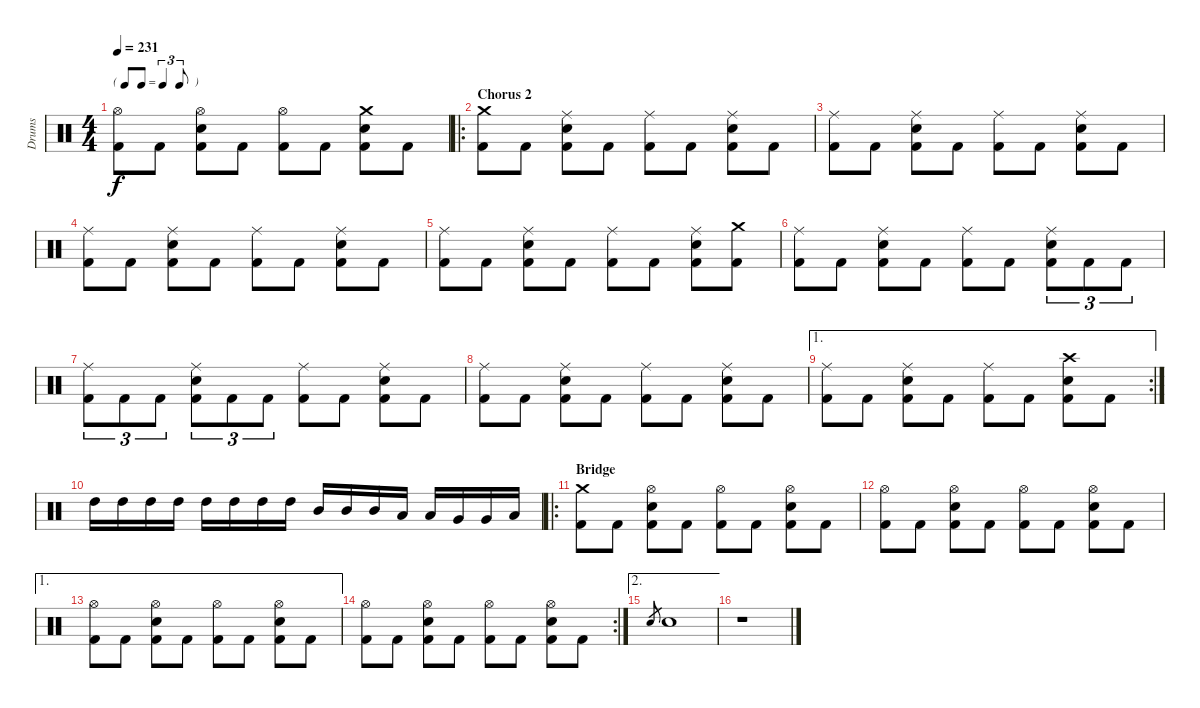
\track ("Drums" "Drums") {instrument percussion}
\staff {score}
\articulation defaults
\ts (4 4)
\tf triplet8th
\tempo 231
\clef neutral
\ks c
("Hi-Hat (open)" "Kick (hit) 2").8{dy f} "Kick (hit) 2".8 ("Hi-Hat (open)" "Electric Snare (hit)" "Kick (hit) 2").8 "Kick (hit) 2".8 ("Hi-Hat (open)" "Kick (hit) 2").8 "Kick (hit) 2".8 ("Crash medium (hit)" "Electric Snare (hit)" "Kick (hit) 2").8 "Kick (hit) 2".8 |
\ro
\section ("" "Chorus 2")
("Crash medium (hit)" "Kick (hit) 2").8 "Kick (hit) 2".8 ("Ride (middle)" "Electric Snare (hit)" "Kick (hit) 2").8 "Kick (hit) 2".8 ("Ride (middle)" "Kick (hit) 2").8 "Kick (hit) 2".8 ("Ride (middle)" "Electric Snare (hit)" "Kick (hit) 2").8 "Kick (hit) 2".8 |
("Ride (middle)" "Kick (hit) 2").8 "Kick (hit) 2".8 ("Ride (middle)" "Electric Snare (hit)" "Kick (hit) 2").8 "Kick (hit) 2".8 ("Ride (middle)" "Kick (hit) 2").8 "Kick (hit) 2".8 ("Ride (middle)" "Electric Snare (hit)" "Kick (hit) 2").8 "Kick (hit) 2".8 |
("Ride (middle)" "Kick (hit) 2").8 "Kick (hit) 2".8 ("Ride (middle)" "Electric Snare (hit)" "Kick (hit) 2").8 "Kick (hit) 2".8 ("Ride (middle)" "Kick (hit) 2").8 "Kick (hit) 2".8 ("Ride (middle)" "Electric Snare (hit)" "Kick (hit) 2").8 "Kick (hit) 2".8 |
("Ride (middle)" "Kick (hit) 2").8 "Kick (hit) 2".8 ("Ride (middle)" "Electric Snare (hit)" "Kick (hit) 2").8 "Kick (hit) 2".8 ("Ride (middle)" "Kick (hit) 2").8 "Kick (hit) 2".8 ("Ride (middle)" "Electric Snare (hit)" "Kick (hit) 2").8 ("Crash medium (hit)" "Kick (hit) 2").8 |
("Ride (middle)" "Kick (hit) 2").8 "Kick (hit) 2".8 ("Ride (middle)" "Electric Snare (hit)" "Kick (hit) 2").8 "Kick (hit) 2".8 ("Ride (middle)" "Kick (hit) 2").8 "Kick (hit) 2".8 ("Ride (middle)" "Electric Snare (hit)" "Kick (hit) 2").8{tu (3 2)} "Kick (hit) 2".8{tu (3 2)} "Kick (hit) 2".8{tu (3 2)} |
("Ride (middle)" "Kick (hit) 2").8{tu (3 2)} "Kick (hit) 2".8{tu (3 2)} "Kick (hit) 2".8{tu (3 2)} ("Ride (middle)" "Electric Snare (hit)" "Kick (hit) 2").8{tu (3 2)} "Kick (hit) 2".8{tu (3 2)} "Kick (hit) 2".8{tu (3 2)} ("Ride (middle)" "Kick (hit) 2").8 "Kick (hit) 2".8 ("Ride (middle)" "Electric Snare (hit)" "Kick (hit) 2").8 "Kick (hit) 2".8 |
("Ride (middle)" "Kick (hit) 2").8 "Kick (hit) 2".8 ("Ride (middle)" "Electric Snare (hit)" "Kick (hit) 2").8 "Kick (hit) 2".8 ("Ride (middle)" "Kick (hit) 2").8 "Kick (hit) 2".8 ("Ride (middle)" "Electric Snare (hit)" "Kick (hit) 2").8 "Kick (hit) 2".8 |
\ae 1
\rc 2
("Ride (middle)" "Kick (hit) 2").8 "Kick (hit) 2".8 ("Ride (middle)" "Electric Snare (hit)" "Kick (hit) 2").8 "Kick (hit) 2".8 ("Ride (middle)" "Kick (hit) 2").8 "Kick (hit) 2".8 ("Crash high (hit)" "Electric Snare (hit)" "Kick (hit) 2").8 "Kick (hit) 2".8 |
"High Tom (hit)".16 "High Tom (hit)".16 "High Tom (hit)".16 "High Tom (hit)".16 "High Tom (hit)".16 "High Tom (hit)".16 "High Tom (hit)".16 "High Tom (hit)".16 "Mid Tom (hit)".16 "Mid Tom (hit)".16 "Mid Tom (hit)".16 "Low Tom (hit)".16 "Low Tom (hit)".16 "Very Low Tom (hit)".16 "Very Low Tom (hit)".16 "Low Floor Tom (hit)".16 |
\ro
\section ("" "Bridge")
("Crash medium (hit)" "Kick (hit) 2").8 "Kick (hit) 2".8 ("Hi-Hat (open)" "Electric Snare (hit)" "Kick (hit) 2").8 "Kick (hit) 2".8 ("Hi-Hat (open)" "Kick (hit) 2").8 "Kick (hit) 2".8 ("Hi-Hat (open)" "Electric Snare (hit)" "Kick (hit) 2").8 "Kick (hit) 2".8 |
("Hi-Hat (open)" "Kick (hit) 2").8 "Kick (hit) 2".8 ("Hi-Hat (open)" "Electric Snare (hit)" "Kick (hit) 2").8 "Kick (hit) 2".8 ("Hi-Hat (open)" "Kick (hit) 2").8 "Kick (hit) 2".8 ("Hi-Hat (open)" "Electric Snare (hit)" "Kick (hit) 2").8 "Kick (hit) 2".8 |
\ae 1
("Hi-Hat (open)" "Kick (hit) 2").8 "Kick (hit) 2".8 ("Hi-Hat (open)" "Electric Snare (hit)" "Kick (hit) 2").8 "Kick (hit) 2".8 ("Hi-Hat (open)" "Kick (hit) 2").8 "Kick (hit) 2".8 ("Hi-Hat (open)" "Electric Snare (hit)" "Kick (hit) 2").8 "Kick (hit) 2".8 |
\rc 2
("Hi-Hat (open)" "Kick (hit) 2").8 "Kick (hit) 2".8 ("Hi-Hat (open)" "Electric Snare (hit)" "Kick (hit) 2").8 "Kick (hit) 2".8 ("Hi-Hat (open)" "Kick (hit) 2").8 "Kick (hit) 2".8 ("Hi-Hat (open)" "Electric Snare (hit)" "Kick (hit) 2").8 "Kick (hit) 2".8 |
\ae 2 "Snare (hit) 2".8{gr} "Snare (hit) 2".1
|
r.1
